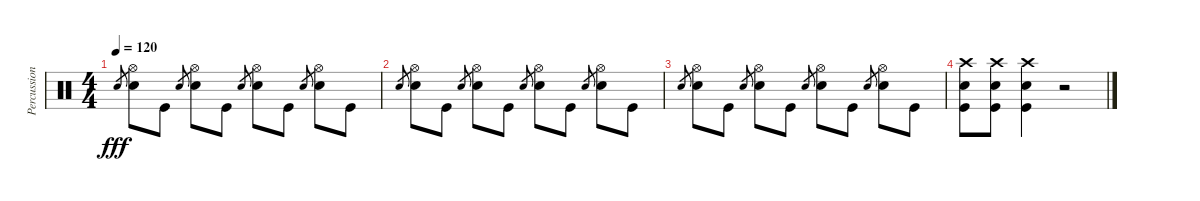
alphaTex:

\track ("Percussion" "Percussion") {solo instrument percussion}
\staff {score}
\articulation defaults
\ts (4 4)
\tempo 120
\clef neutral
\ks c "Snare (hit) 2".8{gr dy fff}
("Hi-Hat (open)" "Snare (hit) 2").8 "Kick (hit)".8 "Snare (hit) 2".8{gr} ("Hi-Hat (open)" "Snare (hit) 2").8 "Kick (hit)".8 "Snare (hit) 2".8{gr} ("Hi-Hat (open)" "Snare (hit) 2").8 "Kick (hit)".8 "Snare (hit) 2".8{gr} ("Hi-Hat (open)" "Snare (hit) 2").8 "Kick (hit)".8 |
"Snare (hit) 2".8{gr} ("Hi-Hat (open)" "Snare (hit) 2").8 "Kick (hit)".8 "Snare (hit) 2".8{gr} ("Hi-Hat (open)" "Snare (hit) 2").8 "Kick (hit)".8 "Snare (hit) 2".8{gr} ("Hi-Hat (open)" "Snare (hit) 2").8 "Kick (hit)".8 "Snare (hit) 2".8{gr} ("Hi-Hat (open)" "Snare (hit) 2").8 "Kick (hit)".8 |
"Snare (hit) 2".8{gr} ("Hi-Hat (open)" "Snare (hit) 2").8 "Kick (hit)".8 "Snare (hit) 2".8{gr} ("Hi-Hat (open)" "Snare (hit) 2").8 "Kick (hit)".8 "Snare (hit) 2".8{gr} ("Hi-Hat (open)" "Snare (hit) 2").8 "Kick (hit)".8 "Snare (hit) 2".8{gr} ("Hi-Hat (open)" "Snare (hit) 2").8 "Kick (hit)".8 |
("Crash high (hit)" "Snare (hit) 2" "Kick (hit)").8 ("Crash high (hit)" "Snare (hit) 2" "Kick (hit)").8 ("Crash high (hit)" "Snare (hit) 2" "Kick (hit)").4 r.2
